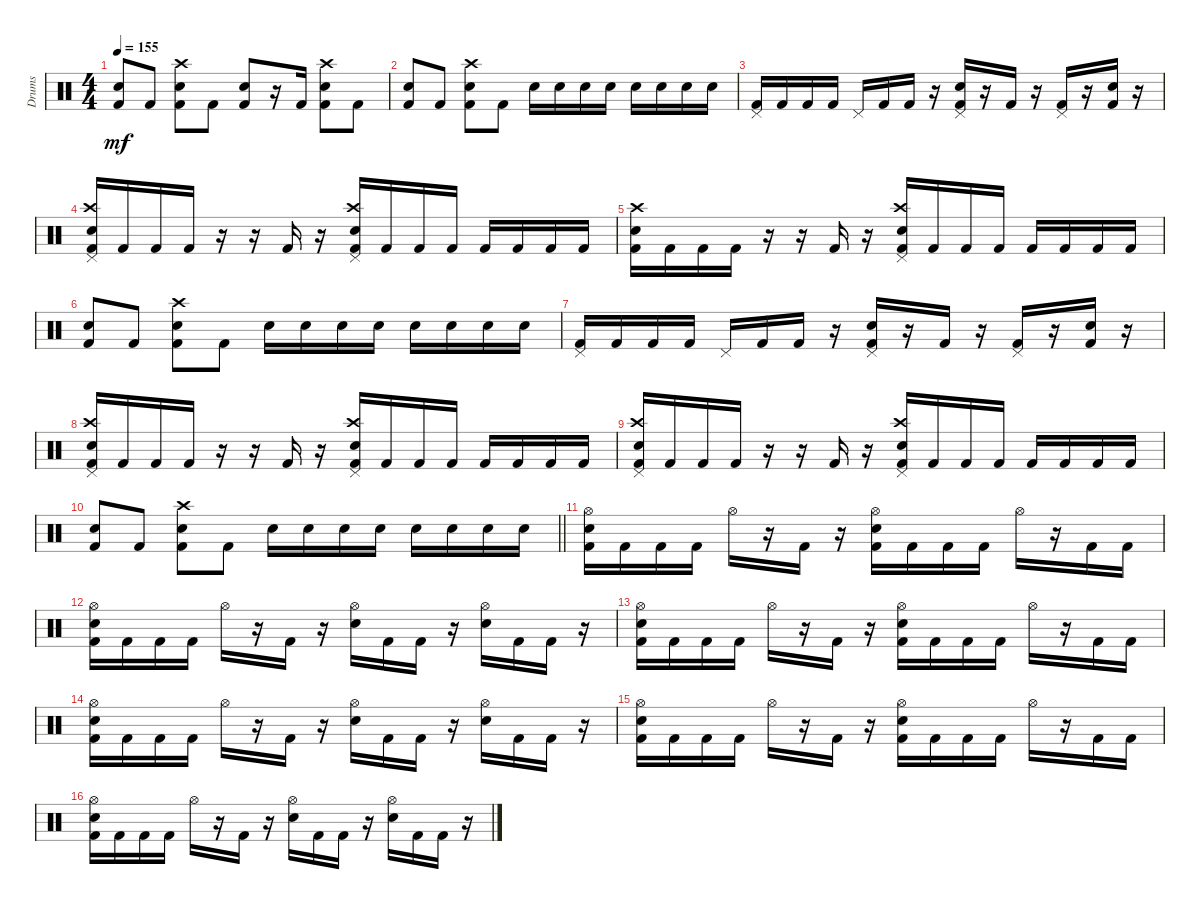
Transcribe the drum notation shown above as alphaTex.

\track ("Drums" "Drums") {instrument percussion}
\staff {score}
\articulation defaults
\ts (4 4)
\tempo 155
\clef neutral
\ks c
("Kick (hit) 2" "Electric Snare (hit)").8{dy mf} "Kick (hit) 2".8 ("Kick (hit) 2" "Electric Snare (hit)" "Crash high (hit)").8 "Kick (hit) 2".8 ("Kick (hit) 2" "Electric Snare (hit)").8 r.16 "Kick (hit) 2".16 ("Kick (hit) 2" "Electric Snare (hit)" "Crash high (hit)").8 "Kick (hit) 2".8 |
("Kick (hit) 2" "Electric Snare (hit)").8 "Kick (hit) 2".8 ("Kick (hit) 2" "Electric Snare (hit)" "Crash high (hit)").8 "Kick (hit) 2".8 "Electric Snare (hit)".16 "Electric Snare (hit)".16 "Electric Snare (hit)".16 "Electric Snare (hit)".16 "Electric Snare (hit)".16 "Electric Snare (hit)".16 "Electric Snare (hit)".16 "Electric Snare (hit)".16 |
("Kick (hit) 2" "Pedal Hi-Hat (hit)").16 "Kick (hit) 2".16 "Kick (hit) 2".16 "Kick (hit) 2".16 "Pedal Hi-Hat (hit)".16 "Kick (hit) 2".16 "Kick (hit) 2".16 r.16 ("Kick (hit) 2" "Electric Snare (hit)" "Pedal Hi-Hat (hit)").16 r.16 "Kick (hit) 2".16 r.16 ("Kick (hit) 2" "Pedal Hi-Hat (hit)").16 r.16 ("Kick (hit) 2" "Electric Snare (hit)").16 r.16 |
("Kick (hit) 2" "Electric Snare (hit)" "Pedal Hi-Hat (hit)" "Crash high (hit)").16 "Kick (hit) 2".16 "Kick (hit) 2".16 "Kick (hit) 2".16 r.16 r.16 "Kick (hit) 2".16 r.16 ("Kick (hit) 2" "Electric Snare (hit)" "Pedal Hi-Hat (hit)" "Crash high (hit)").16 "Kick (hit) 2".16 "Kick (hit) 2".16 "Kick (hit) 2".16 "Kick (hit) 2".16 "Kick (hit) 2".16 "Kick (hit) 2".16 "Kick (hit) 2".16 |
("Kick (hit) 2" "Electric Snare (hit)" "Crash high (hit)").16 "Kick (hit) 2".16 "Kick (hit) 2".16 "Kick (hit) 2".16 r.16 r.16 "Kick (hit) 2".16 r.16 ("Kick (hit) 2" "Electric Snare (hit)" "Pedal Hi-Hat (hit)" "Crash high (hit)").16 "Kick (hit) 2".16 "Kick (hit) 2".16 "Kick (hit) 2".16 "Kick (hit) 2".16 "Kick (hit) 2".16 "Kick (hit) 2".16 "Kick (hit) 2".16 |
("Kick (hit) 2" "Electric Snare (hit)").8 "Kick (hit) 2".8 ("Kick (hit) 2" "Electric Snare (hit)" "Crash high (hit)").8 "Kick (hit) 2".8 "Electric Snare (hit)".16 "Electric Snare (hit)".16 "Electric Snare (hit)".16 "Electric Snare (hit)".16 "Electric Snare (hit)".16 "Electric Snare (hit)".16 "Electric Snare (hit)".16 "Electric Snare (hit)".16 |
("Kick (hit) 2" "Pedal Hi-Hat (hit)").16 "Kick (hit) 2".16 "Kick (hit) 2".16 "Kick (hit) 2".16 "Pedal Hi-Hat (hit)".16 "Kick (hit) 2".16 "Kick (hit) 2".16 r.16 ("Kick (hit) 2" "Electric Snare (hit)" "Pedal Hi-Hat (hit)").16 r.16 "Kick (hit) 2".16 r.16 ("Kick (hit) 2" "Pedal Hi-Hat (hit)").16 r.16 ("Kick (hit) 2" "Electric Snare (hit)").16 r.16 |
("Kick (hit) 2" "Electric Snare (hit)" "Pedal Hi-Hat (hit)" "Crash high (hit)").16 "Kick (hit) 2".16 "Kick (hit) 2".16 "Kick (hit) 2".16 r.16 r.16 "Kick (hit) 2".16 r.16 ("Kick (hit) 2" "Electric Snare (hit)" "Pedal Hi-Hat (hit)" "Crash high (hit)").16 "Kick (hit) 2".16 "Kick (hit) 2".16 "Kick (hit) 2".16 "Kick (hit) 2".16 "Kick (hit) 2".16 "Kick (hit) 2".16 "Kick (hit) 2".16 |
("Kick (hit) 2" "Electric Snare (hit)" "Crash high (hit)" "Pedal Hi-Hat (hit)").16 "Kick (hit) 2".16 "Kick (hit) 2".16 "Kick (hit) 2".16 r.16 r.16 "Kick (hit) 2".16 r.16 ("Kick (hit) 2" "Electric Snare (hit)" "Pedal Hi-Hat (hit)" "Crash high (hit)").16 "Kick (hit) 2".16 "Kick (hit) 2".16 "Kick (hit) 2".16 "Kick (hit) 2".16 "Kick (hit) 2".16 "Kick (hit) 2".16 "Kick (hit) 2".16 |
\barLineRight lightlight
("Kick (hit) 2" "Electric Snare (hit)").8 "Kick (hit) 2".8 ("Kick (hit) 2" "Electric Snare (hit)" "Crash high (hit)").8 "Kick (hit) 2".8 "Electric Snare (hit)".16 "Electric Snare (hit)".16 "Electric Snare (hit)".16 "Electric Snare (hit)".16 "Electric Snare (hit)".16 "Electric Snare (hit)".16 "Electric Snare (hit)".16 "Electric Snare (hit)".16 |
\section ("" "")
("Electric Snare (hit)" "Kick (hit) 2" "Hi-Hat (open)").16 "Kick (hit) 2".16 "Kick (hit) 2".16 "Kick (hit) 2".16 "Hi-Hat (open)".16 r.16 "Kick (hit) 2".16 r.16 ("Electric Snare (hit)" "Kick (hit) 2" "Hi-Hat (open)").16 "Kick (hit) 2".16 "Kick (hit) 2".16 "Kick (hit) 2".16 "Hi-Hat (open)".16 r.16 "Kick (hit) 2".16 "Kick (hit) 2".16 |
("Electric Snare (hit)" "Kick (hit) 2" "Hi-Hat (open)").16 "Kick (hit) 2".16 "Kick (hit) 2".16 "Kick (hit) 2".16 "Hi-Hat (open)".16 r.16 "Kick (hit) 2".16 r.16 ("Hi-Hat (open)" "Electric Snare (hit)").16 "Kick (hit) 2".16 "Kick (hit) 2".16 r.16 ("Hi-Hat (open)" "Electric Snare (hit)").16 "Kick (hit) 2".16 "Kick (hit) 2".16 r.16 |
("Electric Snare (hit)" "Kick (hit) 2" "Hi-Hat (open)").16 "Kick (hit) 2".16 "Kick (hit) 2".16 "Kick (hit) 2".16 "Hi-Hat (open)".16 r.16 "Kick (hit) 2".16 r.16 ("Electric Snare (hit)" "Kick (hit) 2" "Hi-Hat (open)").16 "Kick (hit) 2".16 "Kick (hit) 2".16 "Kick (hit) 2".16 "Hi-Hat (open)".16 r.16 "Kick (hit) 2".16 "Kick (hit) 2".16 |
("Electric Snare (hit)" "Kick (hit) 2" "Hi-Hat (open)").16 "Kick (hit) 2".16 "Kick (hit) 2".16 "Kick (hit) 2".16 "Hi-Hat (open)".16 r.16 "Kick (hit) 2".16 r.16 ("Hi-Hat (open)" "Electric Snare (hit)").16 "Kick (hit) 2".16 "Kick (hit) 2".16 r.16 ("Hi-Hat (open)" "Electric Snare (hit)").16 "Kick (hit) 2".16 "Kick (hit) 2".16 r.16 |
("Electric Snare (hit)" "Kick (hit) 2" "Hi-Hat (open)").16 "Kick (hit) 2".16 "Kick (hit) 2".16 "Kick (hit) 2".16 "Hi-Hat (open)".16 r.16 "Kick (hit) 2".16 r.16 ("Electric Snare (hit)" "Kick (hit) 2" "Hi-Hat (open)").16 "Kick (hit) 2".16 "Kick (hit) 2".16 "Kick (hit) 2".16 "Hi-Hat (open)".16 r.16 "Kick (hit) 2".16 "Kick (hit) 2".16 |
("Electric Snare (hit)" "Kick (hit) 2" "Hi-Hat (open)").16 "Kick (hit) 2".16 "Kick (hit) 2".16 "Kick (hit) 2".16 "Hi-Hat (open)".16 r.16 "Kick (hit) 2".16 r.16 ("Hi-Hat (open)" "Electric Snare (hit)").16 "Kick (hit) 2".16 "Kick (hit) 2".16 r.16 ("Hi-Hat (open)" "Electric Snare (hit)").16 "Kick (hit) 2".16 "Kick (hit) 2".16 r.16
